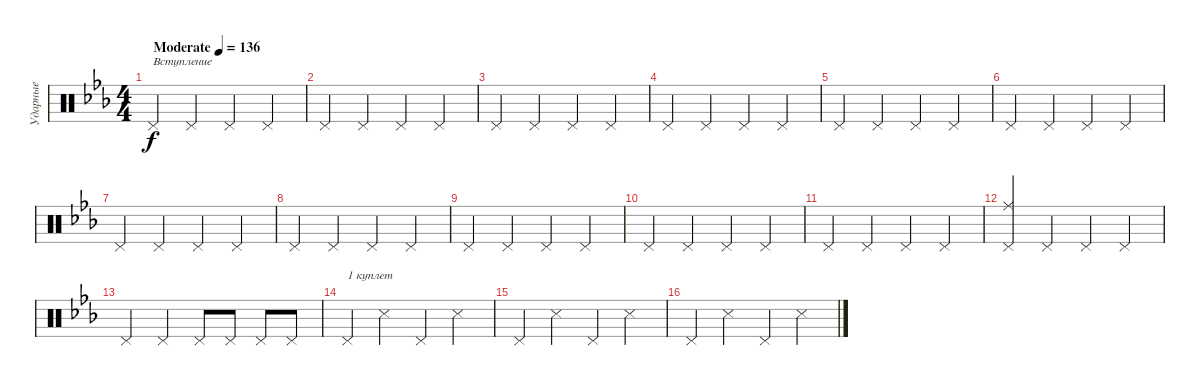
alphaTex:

\track ("Ударные" "Ударные") {instrument percussion}
\staff {score}
\articulation defaults
\ts (4 4)
\tempo (136 "Moderate")
\clef neutral
\ks cminor "Pedal Hi-Hat (hit)".4{txt "Вступление" dy f} "Pedal Hi-Hat (hit)".4 "Pedal Hi-Hat (hit)".4 "Pedal Hi-Hat (hit)".4
|
"Pedal Hi-Hat (hit)".4 "Pedal Hi-Hat (hit)".4 "Pedal Hi-Hat (hit)".4 "Pedal Hi-Hat (hit)".4 |
"Pedal Hi-Hat (hit)".4 "Pedal Hi-Hat (hit)".4 "Pedal Hi-Hat (hit)".4 "Pedal Hi-Hat (hit)".4 |
"Pedal Hi-Hat (hit)".4 "Pedal Hi-Hat (hit)".4 "Pedal Hi-Hat (hit)".4 "Pedal Hi-Hat (hit)".4 |
"Pedal Hi-Hat (hit)".4 "Pedal Hi-Hat (hit)".4 "Pedal Hi-Hat (hit)".4 "Pedal Hi-Hat (hit)".4 |
"Pedal Hi-Hat (hit)".4 "Pedal Hi-Hat (hit)".4 "Pedal Hi-Hat (hit)".4 "Pedal Hi-Hat (hit)".4 |
"Pedal Hi-Hat (hit)".4 "Pedal Hi-Hat (hit)".4 "Pedal Hi-Hat (hit)".4 "Pedal Hi-Hat (hit)".4 |
"Pedal Hi-Hat (hit)".4 "Pedal Hi-Hat (hit)".4 "Pedal Hi-Hat (hit)".4 "Pedal Hi-Hat (hit)".4 |
"Pedal Hi-Hat (hit)".4 "Pedal Hi-Hat (hit)".4 "Pedal Hi-Hat (hit)".4 "Pedal Hi-Hat (hit)".4 |
"Pedal Hi-Hat (hit)".4 "Pedal Hi-Hat (hit)".4 "Pedal Hi-Hat (hit)".4 "Pedal Hi-Hat (hit)".4 |
"Pedal Hi-Hat (hit)".4 "Pedal Hi-Hat (hit)".4 "Pedal Hi-Hat (hit)".4 "Pedal Hi-Hat (hit)".4 |
("Pedal Hi-Hat (hit)" "Ride (middle)").4 "Pedal Hi-Hat (hit)".4 "Pedal Hi-Hat (hit)".4 "Pedal Hi-Hat (hit)".4 |
"Pedal Hi-Hat (hit)".4 "Pedal Hi-Hat (hit)".4 "Pedal Hi-Hat (hit)".8 "Pedal Hi-Hat (hit)".8 "Pedal Hi-Hat (hit)".8 "Pedal Hi-Hat (hit)".8 |
"Pedal Hi-Hat (hit)".4{txt "1 куплет"} "Snare (side stick) 3".4 "Pedal Hi-Hat (hit)".4 "Snare (side stick) 3".4 |
"Pedal Hi-Hat (hit)".4 "Snare (side stick) 3".4 "Pedal Hi-Hat (hit)".4 "Snare (side stick) 3".4 |
"Pedal Hi-Hat (hit)".4 "Snare (side stick) 3".4 "Pedal Hi-Hat (hit)".4 "Snare (side stick) 3".4
